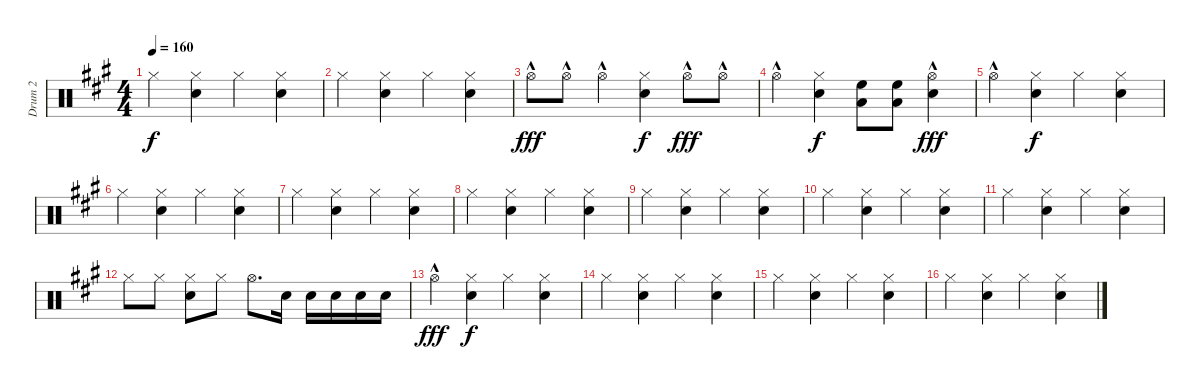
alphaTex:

\track ("Drum 2" "Drum 2") {instrument percussion}
\staff {score}
\articulation defaults
\ts (4 4)
\tempo 160
\clef neutral
\ks a "Hi-Hat (closed)".4{dy f}
("Hi-Hat (closed)" "Snare (hit) 2").4 "Hi-Hat (closed)".4 ("Hi-Hat (closed)" "Snare (hit) 2").4 |
"Hi-Hat (closed)".4 ("Hi-Hat (closed)" "Snare (hit) 2").4 "Hi-Hat (closed)".4 ("Hi-Hat (closed)" "Snare (hit) 2").4 |
"Hi-Hat (open)"{hac}.8{dy fff} "Hi-Hat (open)"{hac}.8 "Hi-Hat (open)"{hac}.4 ("Hi-Hat (closed)" "Snare (hit) 2").4{dy f} "Hi-Hat (open)"{hac}.8{dy fff} "Hi-Hat (open)"{hac}.8 |
"Hi-Hat (open)"{hac}.4 ("Hi-Hat (closed)" "Snare (hit) 2").4{dy f} ("High Floor Tom (hit)" "Low Tom (hit)").8 ("High Floor Tom (hit)" "Low Tom (hit)").8 ("Hi-Hat (open)"{hac} "Snare (hit) 2").4{dy fff} |
"Hi-Hat (open)"{hac}.4 ("Hi-Hat (closed)" "Snare (hit) 2").4{dy f} "Hi-Hat (closed)".4 ("Hi-Hat (closed)" "Snare (hit) 2").4 |
"Hi-Hat (closed)".4 ("Hi-Hat (closed)" "Snare (hit) 2").4 "Hi-Hat (closed)".4 ("Hi-Hat (closed)" "Snare (hit) 2").4 |
"Hi-Hat (closed)".4 ("Hi-Hat (closed)" "Snare (hit) 2").4 "Hi-Hat (closed)".4 ("Hi-Hat (closed)" "Snare (hit) 2").4 |
"Hi-Hat (closed)".4 ("Hi-Hat (closed)" "Snare (hit) 2").4 "Hi-Hat (closed)".4 ("Hi-Hat (closed)" "Snare (hit) 2").4 |
"Hi-Hat (closed)".4 ("Hi-Hat (closed)" "Snare (hit) 2").4 "Hi-Hat (closed)".4 ("Hi-Hat (closed)" "Snare (hit) 2").4 |
"Hi-Hat (closed)".4 ("Hi-Hat (closed)" "Snare (hit) 2").4 "Hi-Hat (closed)".4 ("Hi-Hat (closed)" "Snare (hit) 2").4 |
"Hi-Hat (closed)".4 ("Hi-Hat (closed)" "Snare (hit) 2").4 "Hi-Hat (closed)".4 ("Hi-Hat (closed)" "Snare (hit) 2").4 |
"Hi-Hat (closed)".8 "Hi-Hat (closed)".8 ("Hi-Hat (closed)" "Snare (hit) 2").8 "Hi-Hat (closed)".8 "Hi-Hat (open)".8{d} "Snare (hit) 2".16 "Snare (hit) 2".16 "Snare (hit) 2".16 "Snare (hit) 2".16 "Snare (hit) 2".16 |
"Hi-Hat (open)"{hac}.4{dy fff} ("Hi-Hat (closed)" "Snare (hit) 2").4{dy f} "Hi-Hat (closed)".4 ("Hi-Hat (closed)" "Snare (hit) 2").4 |
"Hi-Hat (closed)".4 ("Hi-Hat (closed)" "Snare (hit) 2").4 "Hi-Hat (closed)".4 ("Hi-Hat (closed)" "Snare (hit) 2").4 |
"Hi-Hat (closed)".4 ("Hi-Hat (closed)" "Snare (hit) 2").4 "Hi-Hat (closed)".4 ("Hi-Hat (closed)" "Snare (hit) 2").4 |
"Hi-Hat (closed)".4 ("Hi-Hat (closed)" "Snare (hit) 2").4 "Hi-Hat (closed)".4 ("Hi-Hat (closed)" "Snare (hit) 2").4
